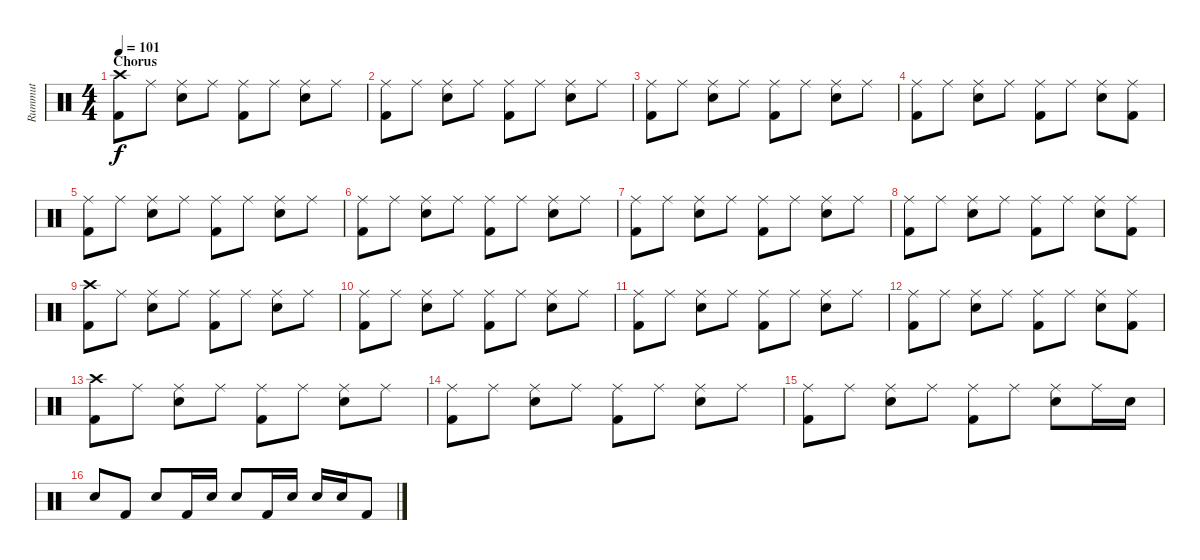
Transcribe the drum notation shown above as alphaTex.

\track ("Rummut" "Rummut") {instrument percussion}
\staff {score}
\articulation defaults
\ts (4 4)
\section ("" "Chorus")
\tempo 101
\clef neutral
\ks c
("Crash high (hit)" "Kick (hit) 2").8{dy f} "Ride (middle)".8 ("Ride (middle)" "Electric Snare (hit)").8 "Ride (middle)".8 ("Ride (middle)" "Kick (hit) 2").8 "Ride (middle)".8 ("Ride (middle)" "Electric Snare (hit)").8 "Ride (middle)".8 |
("Ride (middle)" "Kick (hit) 2").8 "Ride (middle)".8 ("Ride (middle)" "Electric Snare (hit)").8 "Ride (middle)".8 ("Ride (middle)" "Kick (hit) 2").8 "Ride (middle)".8 ("Ride (middle)" "Electric Snare (hit)").8 "Ride (middle)".8 |
("Ride (middle)" "Kick (hit) 2").8 "Ride (middle)".8 ("Ride (middle)" "Electric Snare (hit)").8 "Ride (middle)".8 ("Ride (middle)" "Kick (hit) 2").8 "Ride (middle)".8 ("Ride (middle)" "Electric Snare (hit)").8 "Ride (middle)".8 |
("Ride (middle)" "Kick (hit) 2").8 "Ride (middle)".8 ("Ride (middle)" "Electric Snare (hit)").8 "Ride (middle)".8 ("Ride (middle)" "Kick (hit) 2").8 "Ride (middle)".8 ("Ride (middle)" "Electric Snare (hit)").8 ("Ride (middle)" "Kick (hit) 2").8 |
("Ride (middle)" "Kick (hit) 2").8 "Ride (middle)".8 ("Ride (middle)" "Electric Snare (hit)").8 "Ride (middle)".8 ("Ride (middle)" "Kick (hit) 2").8 "Ride (middle)".8 ("Ride (middle)" "Electric Snare (hit)").8 "Ride (middle)".8 |
("Ride (middle)" "Kick (hit) 2").8 "Ride (middle)".8 ("Ride (middle)" "Electric Snare (hit)").8 "Ride (middle)".8 ("Ride (middle)" "Kick (hit) 2").8 "Ride (middle)".8 ("Ride (middle)" "Electric Snare (hit)").8 "Ride (middle)".8 |
("Ride (middle)" "Kick (hit) 2").8 "Ride (middle)".8 ("Ride (middle)" "Electric Snare (hit)").8 "Ride (middle)".8 ("Ride (middle)" "Kick (hit) 2").8 "Ride (middle)".8 ("Ride (middle)" "Electric Snare (hit)").8 "Ride (middle)".8 |
("Ride (middle)" "Kick (hit) 2").8 "Ride (middle)".8 ("Ride (middle)" "Electric Snare (hit)").8 "Ride (middle)".8 ("Ride (middle)" "Kick (hit) 2").8 "Ride (middle)".8 ("Ride (middle)" "Electric Snare (hit)").8 ("Ride (middle)" "Kick (hit) 2").8 |
("Crash high (hit)" "Kick (hit) 2").8 "Ride (middle)".8 ("Ride (middle)" "Electric Snare (hit)").8 "Ride (middle)".8 ("Ride (middle)" "Kick (hit) 2").8 "Ride (middle)".8 ("Ride (middle)" "Electric Snare (hit)").8 "Ride (middle)".8 |
("Ride (middle)" "Kick (hit) 2").8 "Ride (middle)".8 ("Ride (middle)" "Electric Snare (hit)").8 "Ride (middle)".8 ("Ride (middle)" "Kick (hit) 2").8 "Ride (middle)".8 ("Ride (middle)" "Electric Snare (hit)").8 "Ride (middle)".8 |
("Ride (middle)" "Kick (hit) 2").8 "Ride (middle)".8 ("Ride (middle)" "Electric Snare (hit)").8 "Ride (middle)".8 ("Ride (middle)" "Kick (hit) 2").8 "Ride (middle)".8 ("Ride (middle)" "Electric Snare (hit)").8 "Ride (middle)".8 |
("Ride (middle)" "Kick (hit) 2").8 "Ride (middle)".8 ("Ride (middle)" "Electric Snare (hit)").8 "Ride (middle)".8 ("Ride (middle)" "Kick (hit) 2").8 "Ride (middle)".8 ("Ride (middle)" "Electric Snare (hit)").8 ("Ride (middle)" "Kick (hit) 2").8 |
("Crash high (hit)" "Kick (hit) 2").8 "Ride (middle)".8 ("Ride (middle)" "Electric Snare (hit)").8 "Ride (middle)".8 ("Ride (middle)" "Kick (hit) 2").8 "Ride (middle)".8 ("Ride (middle)" "Electric Snare (hit)").8 "Ride (middle)".8 |
("Ride (middle)" "Kick (hit) 2").8 "Ride (middle)".8 ("Ride (middle)" "Electric Snare (hit)").8 "Ride (middle)".8 ("Ride (middle)" "Kick (hit) 2").8 "Ride (middle)".8 ("Ride (middle)" "Electric Snare (hit)").8 "Ride (middle)".8 |
("Ride (middle)" "Kick (hit) 2").8 "Ride (middle)".8 ("Ride (middle)" "Electric Snare (hit)").8 "Ride (middle)".8 ("Ride (middle)" "Kick (hit) 2").8 "Ride (middle)".8 ("Ride (middle)" "Electric Snare (hit)").8 "Ride (middle)".16 "Electric Snare (hit)".16 |
"Electric Snare (hit)".8 "Kick (hit) 2".8 "Electric Snare (hit)".8 "Kick (hit) 2".16 "Electric Snare (hit)".16 "Electric Snare (hit)".8 "Kick (hit) 2".16 "Electric Snare (hit)".16 "Electric Snare (hit)".16 "Electric Snare (hit)".16 "Kick (hit) 2".8
